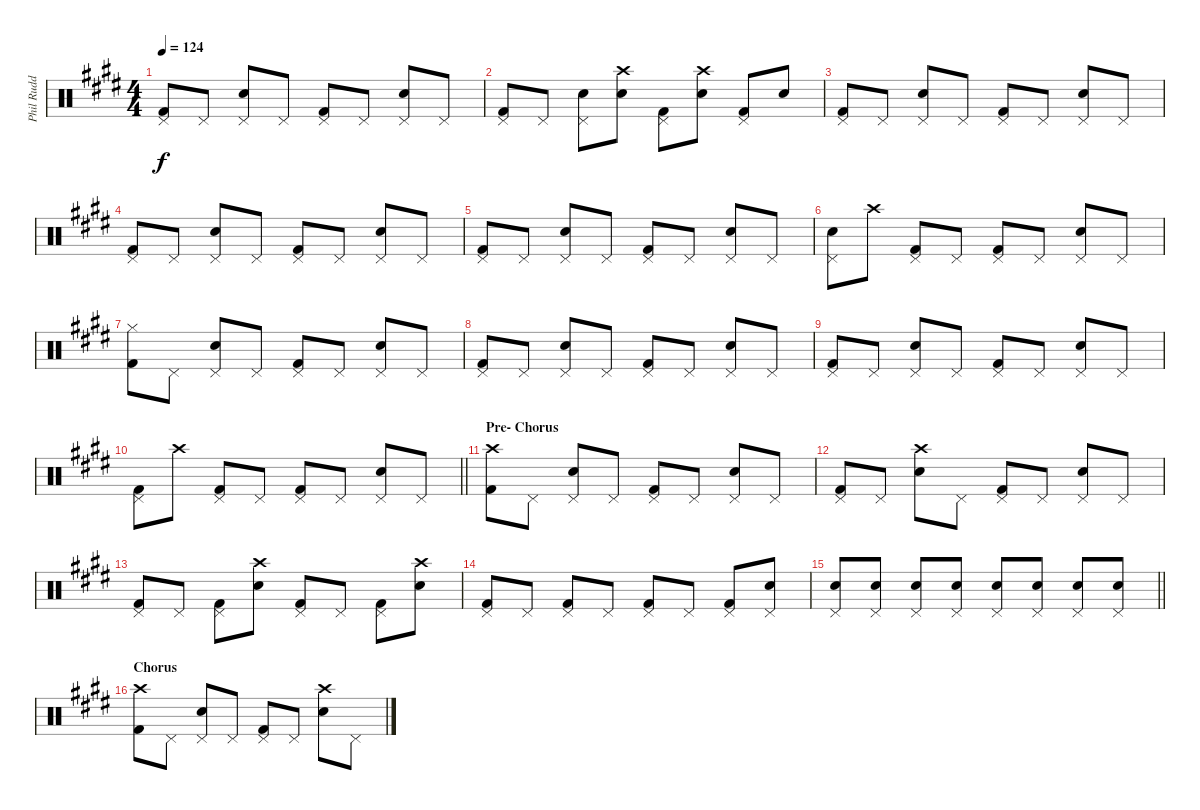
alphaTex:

\track ("Phil Rudd (Drums)" "Phil Rudd ") {instrument percussion}
\staff {score}
\articulation defaults
\ts (4 4)
\tempo 124
\clef neutral
\ks e
("Pedal Hi-Hat (hit)" "Kick (hit) 2").8{dy f} "Pedal Hi-Hat (hit)".8 ("Pedal Hi-Hat (hit)" "Snare (hit) 2").8 "Pedal Hi-Hat (hit)".8 ("Pedal Hi-Hat (hit)" "Kick (hit) 2").8 "Pedal Hi-Hat (hit)".8 ("Pedal Hi-Hat (hit)" "Snare (hit) 2").8 "Pedal Hi-Hat (hit)".8 |
("Pedal Hi-Hat (hit)" "Kick (hit) 2").8 "Pedal Hi-Hat (hit)".8 ("Pedal Hi-Hat (hit)" "Snare (hit) 2").8 ("Crash high (hit)" "Snare (hit) 2").8 ("Pedal Hi-Hat (hit)" "Kick (hit) 2").8 ("Crash high (hit)" "Snare (hit) 2").8 ("Pedal Hi-Hat (hit)" "Kick (hit) 2").8 "Snare (hit) 2".8 |
("Pedal Hi-Hat (hit)" "Kick (hit) 2").8 "Pedal Hi-Hat (hit)".8 ("Pedal Hi-Hat (hit)" "Snare (hit) 2").8 "Pedal Hi-Hat (hit)".8 ("Pedal Hi-Hat (hit)" "Kick (hit) 2").8 "Pedal Hi-Hat (hit)".8 ("Pedal Hi-Hat (hit)" "Snare (hit) 2").8 "Pedal Hi-Hat (hit)".8 |
("Pedal Hi-Hat (hit)" "Kick (hit) 2").8 "Pedal Hi-Hat (hit)".8 ("Pedal Hi-Hat (hit)" "Snare (hit) 2").8 "Pedal Hi-Hat (hit)".8 ("Pedal Hi-Hat (hit)" "Kick (hit) 2").8 "Pedal Hi-Hat (hit)".8 ("Pedal Hi-Hat (hit)" "Snare (hit) 2").8 "Pedal Hi-Hat (hit)".8 |
("Pedal Hi-Hat (hit)" "Kick (hit) 2").8 "Pedal Hi-Hat (hit)".8 ("Pedal Hi-Hat (hit)" "Snare (hit) 2").8 "Pedal Hi-Hat (hit)".8 ("Pedal Hi-Hat (hit)" "Kick (hit) 2").8 "Pedal Hi-Hat (hit)".8 ("Pedal Hi-Hat (hit)" "Snare (hit) 2").8 "Pedal Hi-Hat (hit)".8 |
("Pedal Hi-Hat (hit)" "Snare (hit) 2").8 "Crash high (hit)".8 ("Pedal Hi-Hat (hit)" "Kick (hit) 2").8 "Pedal Hi-Hat (hit)".8 ("Pedal Hi-Hat (hit)" "Kick (hit) 2").8 "Pedal Hi-Hat (hit)".8 ("Pedal Hi-Hat (hit)" "Snare (hit) 2").8 "Pedal Hi-Hat (hit)".8 |
("Hi-Hat (closed)" "Kick (hit) 2").8 "Pedal Hi-Hat (hit)".8 ("Pedal Hi-Hat (hit)" "Snare (hit) 2").8 "Pedal Hi-Hat (hit)".8 ("Pedal Hi-Hat (hit)" "Kick (hit) 2").8 "Pedal Hi-Hat (hit)".8 ("Pedal Hi-Hat (hit)" "Snare (hit) 2").8 "Pedal Hi-Hat (hit)".8 |
("Pedal Hi-Hat (hit)" "Kick (hit) 2").8 "Pedal Hi-Hat (hit)".8 ("Pedal Hi-Hat (hit)" "Snare (hit) 2").8 "Pedal Hi-Hat (hit)".8 ("Pedal Hi-Hat (hit)" "Kick (hit) 2").8 "Pedal Hi-Hat (hit)".8 ("Pedal Hi-Hat (hit)" "Snare (hit) 2").8 "Pedal Hi-Hat (hit)".8 |
("Pedal Hi-Hat (hit)" "Kick (hit) 2").8 "Pedal Hi-Hat (hit)".8 ("Pedal Hi-Hat (hit)" "Snare (hit) 2").8 "Pedal Hi-Hat (hit)".8 ("Pedal Hi-Hat (hit)" "Kick (hit) 2").8 "Pedal Hi-Hat (hit)".8 ("Pedal Hi-Hat (hit)" "Snare (hit) 2").8 "Pedal Hi-Hat (hit)".8 |
\barLineRight lightlight
("Pedal Hi-Hat (hit)" "Kick (hit) 2").8 "Crash high (hit)".8 ("Pedal Hi-Hat (hit)" "Kick (hit) 2").8 "Pedal Hi-Hat (hit)".8 ("Pedal Hi-Hat (hit)" "Kick (hit) 2").8 "Pedal Hi-Hat (hit)".8 ("Pedal Hi-Hat (hit)" "Snare (hit) 2").8 "Pedal Hi-Hat (hit)".8 |
\section ("" "Pre- Chorus")
("Crash high (hit)" "Kick (hit) 2").8 "Pedal Hi-Hat (hit)".8 ("Pedal Hi-Hat (hit)" "Snare (hit) 2").8 "Pedal Hi-Hat (hit)".8 ("Pedal Hi-Hat (hit)" "Kick (hit) 2").8 "Pedal Hi-Hat (hit)".8 ("Pedal Hi-Hat (hit)" "Snare (hit) 2").8 "Pedal Hi-Hat (hit)".8 |
("Pedal Hi-Hat (hit)" "Kick (hit) 2").8 "Pedal Hi-Hat (hit)".8 ("Crash high (hit)" "Snare (hit) 2").8 "Pedal Hi-Hat (hit)".8 ("Pedal Hi-Hat (hit)" "Kick (hit) 2").8 "Pedal Hi-Hat (hit)".8 ("Pedal Hi-Hat (hit)" "Snare (hit) 2").8 "Pedal Hi-Hat (hit)".8 |
("Pedal Hi-Hat (hit)" "Kick (hit) 2").8 "Pedal Hi-Hat (hit)".8 ("Pedal Hi-Hat (hit)" "Kick (hit) 2").8 ("Crash high (hit)" "Snare (hit) 2").8 ("Pedal Hi-Hat (hit)" "Kick (hit) 2").8 "Pedal Hi-Hat (hit)".8 ("Pedal Hi-Hat (hit)" "Kick (hit) 2").8 ("Crash high (hit)" "Snare (hit) 2").8 |
("Pedal Hi-Hat (hit)" "Kick (hit) 2").8 "Pedal Hi-Hat (hit)".8 ("Pedal Hi-Hat (hit)" "Kick (hit) 2").8 "Pedal Hi-Hat (hit)".8 ("Pedal Hi-Hat (hit)" "Kick (hit) 2").8 "Pedal Hi-Hat (hit)".8 ("Pedal Hi-Hat (hit)" "Kick (hit) 2").8 ("Pedal Hi-Hat (hit)" "Snare (hit) 2").8 |
\barLineRight lightlight
("Pedal Hi-Hat (hit)" "Snare (hit) 2").8 ("Pedal Hi-Hat (hit)" "Snare (hit) 2").8 ("Pedal Hi-Hat (hit)" "Snare (hit) 2").8 ("Pedal Hi-Hat (hit)" "Snare (hit) 2").8 ("Pedal Hi-Hat (hit)" "Snare (hit) 2").8 ("Pedal Hi-Hat (hit)" "Snare (hit) 2").8 ("Pedal Hi-Hat (hit)" "Snare (hit) 2").8 ("Pedal Hi-Hat (hit)" "Snare (hit) 2").8 |
\section ("" "Chorus")
("Crash high (hit)" "Kick (hit) 2").8 "Pedal Hi-Hat (hit)".8 ("Pedal Hi-Hat (hit)" "Snare (hit) 2").8 "Pedal Hi-Hat (hit)".8 ("Pedal Hi-Hat (hit)" "Kick (hit) 2").8 "Pedal Hi-Hat (hit)".8 ("Crash high (hit)" "Snare (hit) 2").8 "Pedal Hi-Hat (hit)".8
